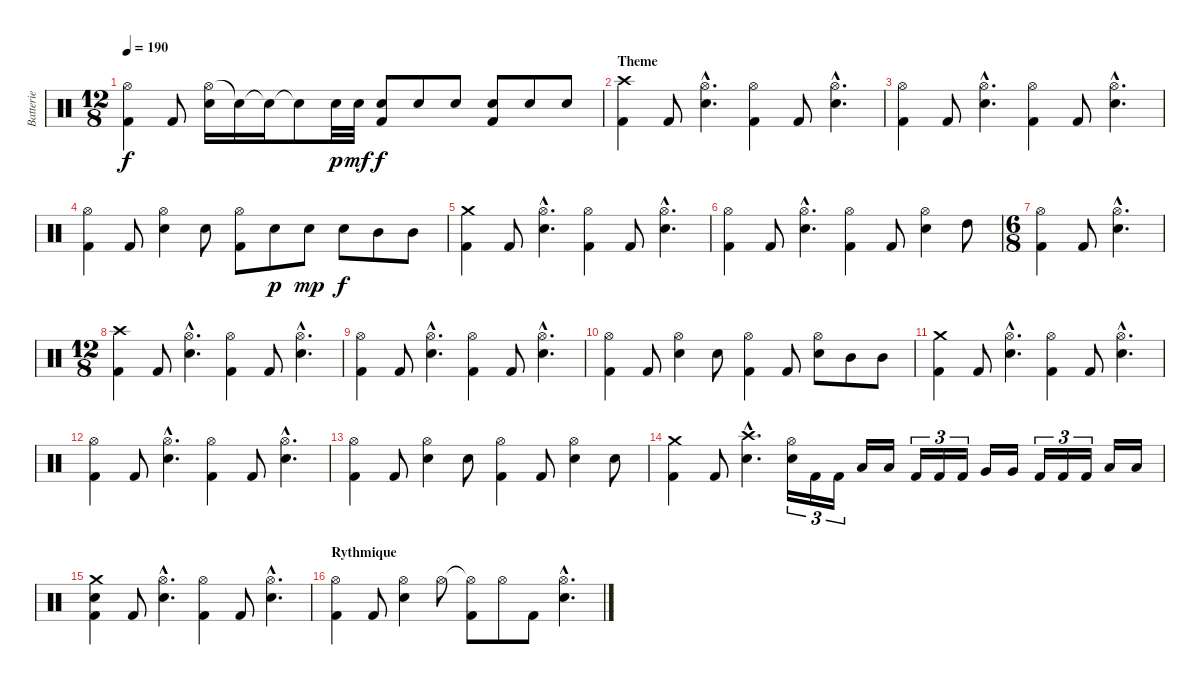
\track ("Batterie" "Batterie") {instrument percussion}
\staff {score}
\articulation defaults
\ts (12 8)
\tempo 190
\clef neutral
\ks c
("Hi-Hat (open)" "Kick (hit) 2").4{dy f} "Kick (hit) 2".8 ("Hi-Hat (open)" "Snare (hit) 2").16 "Snare (hit)"{t}.16 "Snare (hit)"{t}.16 "Snare (hit)"{t}.8 "Snare (hit) 2".32{dy p} "Snare (hit) 2".32{dy mf} ("Snare (hit) 2" "Kick (hit) 2").8{dy f} "Snare (hit) 2".8 "Snare (hit) 2".8 ("Snare (hit) 2" "Kick (hit) 2").8 "Snare (hit) 2".8 "Snare (hit) 2".8 |
\section ("" "Theme")
("Crash high (hit)" "Kick (hit) 2").4 "Kick (hit) 2".8 ("Hi-Hat (open)"{hac} "Snare (hit) 2"{hac}).4{d} ("Hi-Hat (open)" "Kick (hit) 2").4 "Kick (hit) 2".8 ("Hi-Hat (open)"{hac} "Snare (hit) 2"{hac}).4{d} |
("Hi-Hat (open)" "Kick (hit) 2").4 "Kick (hit) 2".8 ("Hi-Hat (open)"{hac} "Snare (hit) 2"{hac}).4{d} ("Hi-Hat (open)" "Kick (hit) 2").4 "Kick (hit) 2".8 ("Hi-Hat (open)"{hac} "Snare (hit) 2"{hac}).4{d} |
("Hi-Hat (open)" "Kick (hit) 2").4 "Kick (hit) 2".8 ("Hi-Hat (open)" "Snare (hit) 2").4 "Snare (hit) 2".8 ("Hi-Hat (open)" "Kick (hit) 2").8 "Snare (hit) 2".8{dy p} "Snare (hit) 2".8{dy mp} "Snare (hit) 2".8{dy f} "Mid Tom (hit)".8 "Mid Tom (hit)".8 |
("Crash medium (hit)" "Kick (hit) 2").4 "Kick (hit) 2".8 ("Hi-Hat (open)"{hac} "Snare (hit) 2"{hac}).4{d} ("Hi-Hat (open)" "Kick (hit) 2").4 "Kick (hit) 2".8 ("Hi-Hat (open)"{hac} "Snare (hit) 2"{hac}).4{d} |
("Hi-Hat (open)" "Kick (hit) 2").4 "Kick (hit) 2".8 ("Hi-Hat (open)"{hac} "Snare (hit) 2"{hac}).4{d} ("Hi-Hat (open)" "Kick (hit) 2").4 "Kick (hit) 2".8 ("Hi-Hat (open)" "Snare (hit) 2").4 "High Tom (hit)".8 |
\ts (6 8)
("Hi-Hat (open)" "Kick (hit) 2").4 "Kick (hit) 2".8 ("Hi-Hat (open)"{hac} "Snare (hit) 2"{hac}).4{d} |
\ts (12 8)
("Crash high (hit)" "Kick (hit) 2").4 "Kick (hit) 2".8 ("Hi-Hat (open)"{hac} "Snare (hit) 2"{hac}).4{d} ("Hi-Hat (open)" "Kick (hit) 2").4 "Kick (hit) 2".8 ("Hi-Hat (open)"{hac} "Snare (hit) 2"{hac}).4{d} |
("Hi-Hat (open)" "Kick (hit) 2").4 "Kick (hit) 2".8 ("Hi-Hat (open)"{hac} "Snare (hit) 2"{hac}).4{d} ("Hi-Hat (open)" "Kick (hit) 2").4 "Kick (hit) 2".8 ("Hi-Hat (open)"{hac} "Snare (hit) 2"{hac}).4{d} |
("Hi-Hat (open)" "Kick (hit) 2").4 "Kick (hit) 2".8 ("Hi-Hat (open)" "Snare (hit) 2").4 "Snare (hit) 2".8 ("Hi-Hat (open)" "Kick (hit) 2").4 "Kick (hit) 2".8 ("Hi-Hat (open)" "Snare (hit) 2").8 "Mid Tom (hit)".8 "Mid Tom (hit)".8 |
("Crash medium (hit)" "Kick (hit) 2").4 "Kick (hit) 2".8 ("Hi-Hat (open)"{hac} "Snare (hit) 2"{hac}).4{d} ("Hi-Hat (open)" "Kick (hit) 2").4 "Kick (hit) 2".8 ("Hi-Hat (open)"{hac} "Snare (hit) 2"{hac}).4{d} |
("Hi-Hat (open)" "Kick (hit) 2").4 "Kick (hit) 2".8 ("Hi-Hat (open)"{hac} "Snare (hit) 2"{hac}).4{d} ("Hi-Hat (open)" "Kick (hit) 2").4 "Kick (hit) 2".8 ("Hi-Hat (open)"{hac} "Snare (hit) 2"{hac}).4{d} |
("Hi-Hat (open)" "Kick (hit) 2").4 "Kick (hit) 2".8 ("Hi-Hat (open)" "Snare (hit) 2").4 "Snare (hit) 2".8 ("Hi-Hat (open)" "Kick (hit) 2").4 "Kick (hit) 2".8 ("Hi-Hat (open)" "Snare (hit) 2").4 "Snare (hit) 2".8 |
("Crash medium (hit)" "Kick (hit) 2").4 "Kick (hit) 2".8 ("Crash high (hit)"{hac} "Snare (hit) 2"{hac}).4{d} ("Hi-Hat (open)" "Snare (hit) 2").16{tu (3 2)} "Kick (hit) 2".16{tu (3 2)} "Kick (hit) 2".16{tu (3 2)} "Low Tom (hit)".16 "Low Tom (hit)".16 "Kick (hit) 2".16{tu (3 2)} "Kick (hit) 2".16{tu (3 2)} "Kick (hit) 2".16{tu (3 2)} "Very Low Tom (hit)".16 "Very Low Tom (hit)".16 "Kick (hit) 2".16{tu (3 2)} "Kick (hit) 2".16{tu (3 2)} "Kick (hit) 2".16{tu (3 2)} "Low Floor Tom (hit)".16 "Low Floor Tom (hit)".16 |
("Crash medium (hit)" "Snare (hit) 2" "Kick (hit) 2").4 "Kick (hit) 2".8 ("Hi-Hat (open)"{hac} "Snare (hit) 2"{hac}).4{d} ("Hi-Hat (open)" "Kick (hit) 2").4 "Kick (hit) 2".8 ("Hi-Hat (open)"{hac} "Snare (hit) 2"{hac}).4{d} |
\section ("" "Rythmique")
("Hi-Hat (open)" "Kick (hit) 2").4 "Kick (hit) 2".8 ("Hi-Hat (open)" "Snare (hit) 2").4 "Hi-Hat (open)".8 ("Hi-Hat (open)"{t} "Kick (hit) 2").8 "Hi-Hat (open)".8 "Kick (hit) 2".8 ("Hi-Hat (open)"{hac} "Snare (hit) 2"{hac}).4{d}
